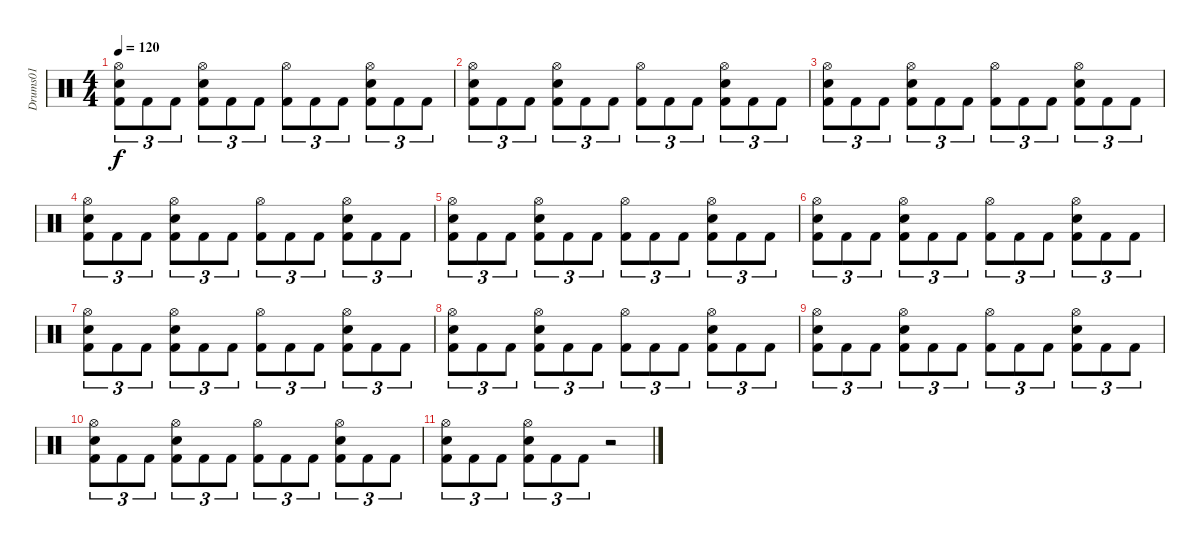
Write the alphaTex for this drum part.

\track ("Drums01" "Drums01") {instrument percussion}
\staff {score}
\articulation defaults
\ts (4 4)
\tempo 120
\clef neutral
\ks c
("Hi-Hat (open)" "Snare (hit) 2" "Kick (hit) 2").8{tu (3 2) dy f} "Kick (hit) 2".8{tu (3 2)} "Kick (hit) 2".8{tu (3 2)} ("Hi-Hat (open)" "Snare (hit) 2" "Kick (hit) 2").8{tu (3 2)} "Kick (hit) 2".8{tu (3 2)} "Kick (hit) 2".8{tu (3 2)} ("Hi-Hat (open)" "Kick (hit) 2").8{tu (3 2)} "Kick (hit) 2".8{tu (3 2)} "Kick (hit) 2".8{tu (3 2)} ("Hi-Hat (open)" "Snare (hit) 2" "Kick (hit) 2").8{tu (3 2)} "Kick (hit) 2".8{tu (3 2)} "Kick (hit) 2".8{tu (3 2)} |
("Hi-Hat (open)" "Snare (hit) 2" "Kick (hit) 2").8{tu (3 2)} "Kick (hit) 2".8{tu (3 2)} "Kick (hit) 2".8{tu (3 2)} ("Hi-Hat (open)" "Snare (hit) 2" "Kick (hit) 2").8{tu (3 2)} "Kick (hit) 2".8{tu (3 2)} "Kick (hit) 2".8{tu (3 2)} ("Hi-Hat (open)" "Kick (hit) 2").8{tu (3 2)} "Kick (hit) 2".8{tu (3 2)} "Kick (hit) 2".8{tu (3 2)} ("Hi-Hat (open)" "Snare (hit) 2" "Kick (hit) 2").8{tu (3 2)} "Kick (hit) 2".8{tu (3 2)} "Kick (hit) 2".8{tu (3 2)} |
("Hi-Hat (open)" "Snare (hit) 2" "Kick (hit) 2").8{tu (3 2)} "Kick (hit) 2".8{tu (3 2)} "Kick (hit) 2".8{tu (3 2)} ("Hi-Hat (open)" "Snare (hit) 2" "Kick (hit) 2").8{tu (3 2)} "Kick (hit) 2".8{tu (3 2)} "Kick (hit) 2".8{tu (3 2)} ("Hi-Hat (open)" "Kick (hit) 2").8{tu (3 2)} "Kick (hit) 2".8{tu (3 2)} "Kick (hit) 2".8{tu (3 2)} ("Hi-Hat (open)" "Snare (hit) 2" "Kick (hit) 2").8{tu (3 2)} "Kick (hit) 2".8{tu (3 2)} "Kick (hit) 2".8{tu (3 2)} |
("Hi-Hat (open)" "Snare (hit) 2" "Kick (hit) 2").8{tu (3 2)} "Kick (hit) 2".8{tu (3 2)} "Kick (hit) 2".8{tu (3 2)} ("Hi-Hat (open)" "Snare (hit) 2" "Kick (hit) 2").8{tu (3 2)} "Kick (hit) 2".8{tu (3 2)} "Kick (hit) 2".8{tu (3 2)} ("Hi-Hat (open)" "Kick (hit) 2").8{tu (3 2)} "Kick (hit) 2".8{tu (3 2)} "Kick (hit) 2".8{tu (3 2)} ("Hi-Hat (open)" "Snare (hit) 2" "Kick (hit) 2").8{tu (3 2)} "Kick (hit) 2".8{tu (3 2)} "Kick (hit) 2".8{tu (3 2)} |
("Hi-Hat (open)" "Snare (hit) 2" "Kick (hit) 2").8{tu (3 2)} "Kick (hit) 2".8{tu (3 2)} "Kick (hit) 2".8{tu (3 2)} ("Hi-Hat (open)" "Snare (hit) 2" "Kick (hit) 2").8{tu (3 2)} "Kick (hit) 2".8{tu (3 2)} "Kick (hit) 2".8{tu (3 2)} ("Hi-Hat (open)" "Kick (hit) 2").8{tu (3 2)} "Kick (hit) 2".8{tu (3 2)} "Kick (hit) 2".8{tu (3 2)} ("Hi-Hat (open)" "Snare (hit) 2" "Kick (hit) 2").8{tu (3 2)} "Kick (hit) 2".8{tu (3 2)} "Kick (hit) 2".8{tu (3 2)} |
("Hi-Hat (open)" "Snare (hit) 2" "Kick (hit) 2").8{tu (3 2)} "Kick (hit) 2".8{tu (3 2)} "Kick (hit) 2".8{tu (3 2)} ("Hi-Hat (open)" "Snare (hit) 2" "Kick (hit) 2").8{tu (3 2)} "Kick (hit) 2".8{tu (3 2)} "Kick (hit) 2".8{tu (3 2)} ("Hi-Hat (open)" "Kick (hit) 2").8{tu (3 2)} "Kick (hit) 2".8{tu (3 2)} "Kick (hit) 2".8{tu (3 2)} ("Hi-Hat (open)" "Snare (hit) 2" "Kick (hit) 2").8{tu (3 2)} "Kick (hit) 2".8{tu (3 2)} "Kick (hit) 2".8{tu (3 2)} |
("Hi-Hat (open)" "Snare (hit) 2" "Kick (hit) 2").8{tu (3 2)} "Kick (hit) 2".8{tu (3 2)} "Kick (hit) 2".8{tu (3 2)} ("Hi-Hat (open)" "Snare (hit) 2" "Kick (hit) 2").8{tu (3 2)} "Kick (hit) 2".8{tu (3 2)} "Kick (hit) 2".8{tu (3 2)} ("Hi-Hat (open)" "Kick (hit) 2").8{tu (3 2)} "Kick (hit) 2".8{tu (3 2)} "Kick (hit) 2".8{tu (3 2)} ("Hi-Hat (open)" "Snare (hit) 2" "Kick (hit) 2").8{tu (3 2)} "Kick (hit) 2".8{tu (3 2)} "Kick (hit) 2".8{tu (3 2)} |
("Hi-Hat (open)" "Snare (hit) 2" "Kick (hit) 2").8{tu (3 2)} "Kick (hit) 2".8{tu (3 2)} "Kick (hit) 2".8{tu (3 2)} ("Hi-Hat (open)" "Snare (hit) 2" "Kick (hit) 2").8{tu (3 2)} "Kick (hit) 2".8{tu (3 2)} "Kick (hit) 2".8{tu (3 2)} ("Hi-Hat (open)" "Kick (hit) 2").8{tu (3 2)} "Kick (hit) 2".8{tu (3 2)} "Kick (hit) 2".8{tu (3 2)} ("Hi-Hat (open)" "Snare (hit) 2" "Kick (hit) 2").8{tu (3 2)} "Kick (hit) 2".8{tu (3 2)} "Kick (hit) 2".8{tu (3 2)} |
("Hi-Hat (open)" "Snare (hit) 2" "Kick (hit) 2").8{tu (3 2)} "Kick (hit) 2".8{tu (3 2)} "Kick (hit) 2".8{tu (3 2)} ("Hi-Hat (open)" "Snare (hit) 2" "Kick (hit) 2").8{tu (3 2)} "Kick (hit) 2".8{tu (3 2)} "Kick (hit) 2".8{tu (3 2)} ("Hi-Hat (open)" "Kick (hit) 2").8{tu (3 2)} "Kick (hit) 2".8{tu (3 2)} "Kick (hit) 2".8{tu (3 2)} ("Hi-Hat (open)" "Snare (hit) 2" "Kick (hit) 2").8{tu (3 2)} "Kick (hit) 2".8{tu (3 2)} "Kick (hit) 2".8{tu (3 2)} |
("Hi-Hat (open)" "Snare (hit) 2" "Kick (hit) 2").8{tu (3 2)} "Kick (hit) 2".8{tu (3 2)} "Kick (hit) 2".8{tu (3 2)} ("Hi-Hat (open)" "Snare (hit) 2" "Kick (hit) 2").8{tu (3 2)} "Kick (hit) 2".8{tu (3 2)} "Kick (hit) 2".8{tu (3 2)} ("Hi-Hat (open)" "Kick (hit) 2").8{tu (3 2)} "Kick (hit) 2".8{tu (3 2)} "Kick (hit) 2".8{tu (3 2)} ("Hi-Hat (open)" "Snare (hit) 2" "Kick (hit) 2").8{tu (3 2)} "Kick (hit) 2".8{tu (3 2)} "Kick (hit) 2".8{tu (3 2)} |
("Hi-Hat (open)" "Snare (hit) 2" "Kick (hit) 2").8{tu (3 2)} "Kick (hit) 2".8{tu (3 2)} "Kick (hit) 2".8{tu (3 2)} ("Hi-Hat (open)" "Snare (hit) 2" "Kick (hit) 2").8{tu (3 2)} "Kick (hit) 2".8{tu (3 2)} "Kick (hit) 2".8{tu (3 2)} r.2
